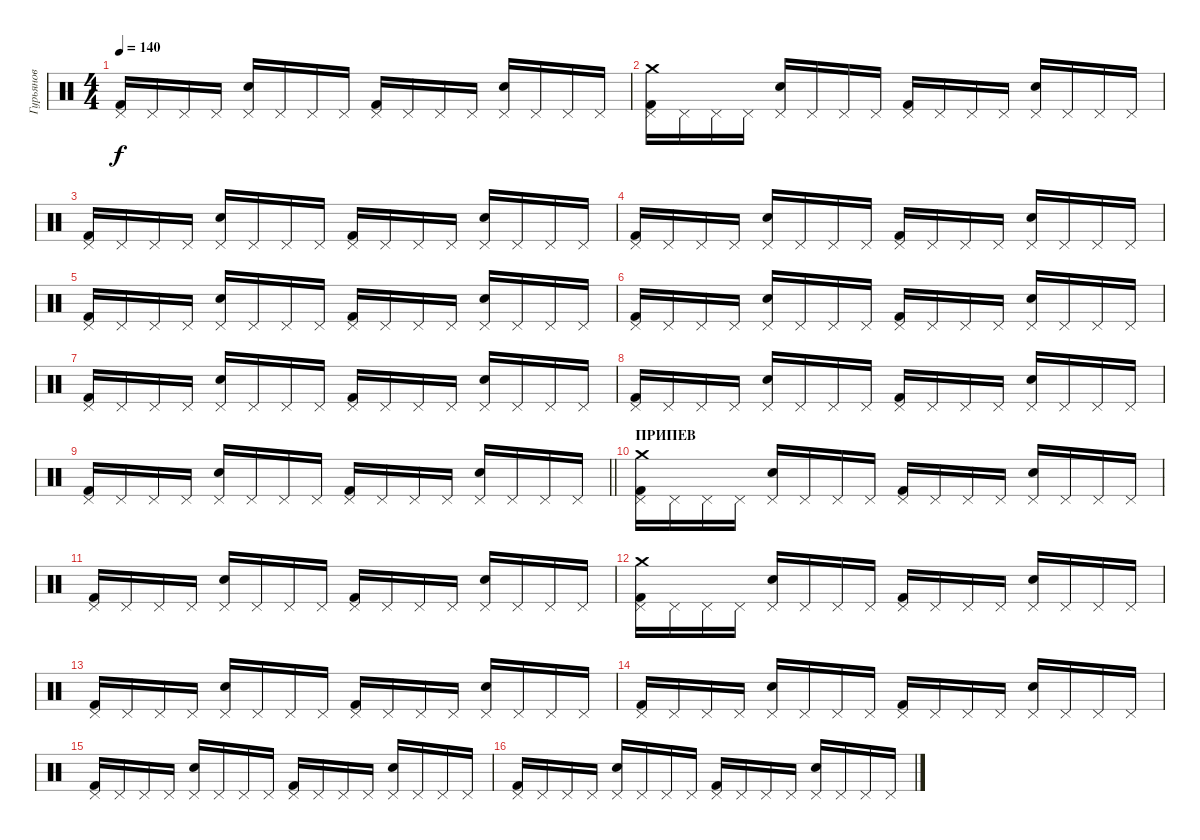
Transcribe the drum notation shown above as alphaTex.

\track ("Гурьянов" "Гурьянов") {instrument percussion}
\staff {score}
\articulation defaults
\ts (4 4)
\tempo 140
\clef neutral
\ks c
("Pedal Hi-Hat (hit)" "Kick (hit) 2").16{dy f} "Pedal Hi-Hat (hit)".16 "Pedal Hi-Hat (hit)".16 "Pedal Hi-Hat (hit)".16 ("Pedal Hi-Hat (hit)" "Electric Snare (hit)").16 "Pedal Hi-Hat (hit)".16 "Pedal Hi-Hat (hit)".16 "Pedal Hi-Hat (hit)".16 ("Pedal Hi-Hat (hit)" "Kick (hit) 2").16 "Pedal Hi-Hat (hit)".16 "Pedal Hi-Hat (hit)".16 "Pedal Hi-Hat (hit)".16 ("Pedal Hi-Hat (hit)" "Electric Snare (hit)").16 "Pedal Hi-Hat (hit)".16 "Pedal Hi-Hat (hit)".16 "Pedal Hi-Hat (hit)".16 |
("Pedal Hi-Hat (hit)" "Crash medium (hit)" "Kick (hit) 2").16 "Pedal Hi-Hat (hit)".16 "Pedal Hi-Hat (hit)".16 "Pedal Hi-Hat (hit)".16 ("Pedal Hi-Hat (hit)" "Electric Snare (hit)").16 "Pedal Hi-Hat (hit)".16 "Pedal Hi-Hat (hit)".16 "Pedal Hi-Hat (hit)".16 ("Pedal Hi-Hat (hit)" "Kick (hit) 2").16 "Pedal Hi-Hat (hit)".16 "Pedal Hi-Hat (hit)".16 "Pedal Hi-Hat (hit)".16 ("Pedal Hi-Hat (hit)" "Electric Snare (hit)").16 "Pedal Hi-Hat (hit)".16 "Pedal Hi-Hat (hit)".16 "Pedal Hi-Hat (hit)".16 |
("Pedal Hi-Hat (hit)" "Kick (hit) 2").16 "Pedal Hi-Hat (hit)".16 "Pedal Hi-Hat (hit)".16 "Pedal Hi-Hat (hit)".16 ("Pedal Hi-Hat (hit)" "Electric Snare (hit)").16 "Pedal Hi-Hat (hit)".16 "Pedal Hi-Hat (hit)".16 "Pedal Hi-Hat (hit)".16 ("Pedal Hi-Hat (hit)" "Kick (hit) 2").16 "Pedal Hi-Hat (hit)".16 "Pedal Hi-Hat (hit)".16 "Pedal Hi-Hat (hit)".16 ("Pedal Hi-Hat (hit)" "Electric Snare (hit)").16 "Pedal Hi-Hat (hit)".16 "Pedal Hi-Hat (hit)".16 "Pedal Hi-Hat (hit)".16 |
("Pedal Hi-Hat (hit)" "Kick (hit) 2").16 "Pedal Hi-Hat (hit)".16 "Pedal Hi-Hat (hit)".16 "Pedal Hi-Hat (hit)".16 ("Pedal Hi-Hat (hit)" "Electric Snare (hit)").16 "Pedal Hi-Hat (hit)".16 "Pedal Hi-Hat (hit)".16 "Pedal Hi-Hat (hit)".16 ("Pedal Hi-Hat (hit)" "Kick (hit) 2").16 "Pedal Hi-Hat (hit)".16 "Pedal Hi-Hat (hit)".16 "Pedal Hi-Hat (hit)".16 ("Pedal Hi-Hat (hit)" "Electric Snare (hit)").16 "Pedal Hi-Hat (hit)".16 "Pedal Hi-Hat (hit)".16 "Pedal Hi-Hat (hit)".16 |
("Pedal Hi-Hat (hit)" "Kick (hit) 2").16 "Pedal Hi-Hat (hit)".16 "Pedal Hi-Hat (hit)".16 "Pedal Hi-Hat (hit)".16 ("Pedal Hi-Hat (hit)" "Electric Snare (hit)").16 "Pedal Hi-Hat (hit)".16 "Pedal Hi-Hat (hit)".16 "Pedal Hi-Hat (hit)".16 ("Pedal Hi-Hat (hit)" "Kick (hit) 2").16 "Pedal Hi-Hat (hit)".16 "Pedal Hi-Hat (hit)".16 "Pedal Hi-Hat (hit)".16 ("Pedal Hi-Hat (hit)" "Electric Snare (hit)").16 "Pedal Hi-Hat (hit)".16 "Pedal Hi-Hat (hit)".16 "Pedal Hi-Hat (hit)".16 |
("Pedal Hi-Hat (hit)" "Kick (hit) 2").16 "Pedal Hi-Hat (hit)".16 "Pedal Hi-Hat (hit)".16 "Pedal Hi-Hat (hit)".16 ("Pedal Hi-Hat (hit)" "Electric Snare (hit)").16 "Pedal Hi-Hat (hit)".16 "Pedal Hi-Hat (hit)".16 "Pedal Hi-Hat (hit)".16 ("Pedal Hi-Hat (hit)" "Kick (hit) 2").16 "Pedal Hi-Hat (hit)".16 "Pedal Hi-Hat (hit)".16 "Pedal Hi-Hat (hit)".16 ("Pedal Hi-Hat (hit)" "Electric Snare (hit)").16 "Pedal Hi-Hat (hit)".16 "Pedal Hi-Hat (hit)".16 "Pedal Hi-Hat (hit)".16 |
("Pedal Hi-Hat (hit)" "Kick (hit) 2").16 "Pedal Hi-Hat (hit)".16 "Pedal Hi-Hat (hit)".16 "Pedal Hi-Hat (hit)".16 ("Pedal Hi-Hat (hit)" "Electric Snare (hit)").16 "Pedal Hi-Hat (hit)".16 "Pedal Hi-Hat (hit)".16 "Pedal Hi-Hat (hit)".16 ("Pedal Hi-Hat (hit)" "Kick (hit) 2").16 "Pedal Hi-Hat (hit)".16 "Pedal Hi-Hat (hit)".16 "Pedal Hi-Hat (hit)".16 ("Pedal Hi-Hat (hit)" "Electric Snare (hit)").16 "Pedal Hi-Hat (hit)".16 "Pedal Hi-Hat (hit)".16 "Pedal Hi-Hat (hit)".16 |
("Pedal Hi-Hat (hit)" "Kick (hit) 2").16 "Pedal Hi-Hat (hit)".16 "Pedal Hi-Hat (hit)".16 "Pedal Hi-Hat (hit)".16 ("Pedal Hi-Hat (hit)" "Electric Snare (hit)").16 "Pedal Hi-Hat (hit)".16 "Pedal Hi-Hat (hit)".16 "Pedal Hi-Hat (hit)".16 ("Pedal Hi-Hat (hit)" "Kick (hit) 2").16 "Pedal Hi-Hat (hit)".16 "Pedal Hi-Hat (hit)".16 "Pedal Hi-Hat (hit)".16 ("Pedal Hi-Hat (hit)" "Electric Snare (hit)").16 "Pedal Hi-Hat (hit)".16 "Pedal Hi-Hat (hit)".16 "Pedal Hi-Hat (hit)".16 |
\barLineRight lightlight
("Pedal Hi-Hat (hit)" "Kick (hit) 2").16 "Pedal Hi-Hat (hit)".16 "Pedal Hi-Hat (hit)".16 "Pedal Hi-Hat (hit)".16 ("Pedal Hi-Hat (hit)" "Electric Snare (hit)").16 "Pedal Hi-Hat (hit)".16 "Pedal Hi-Hat (hit)".16 "Pedal Hi-Hat (hit)".16 ("Pedal Hi-Hat (hit)" "Kick (hit) 2").16 "Pedal Hi-Hat (hit)".16 "Pedal Hi-Hat (hit)".16 "Pedal Hi-Hat (hit)".16 ("Pedal Hi-Hat (hit)" "Electric Snare (hit)").16 "Pedal Hi-Hat (hit)".16 "Pedal Hi-Hat (hit)".16 "Pedal Hi-Hat (hit)".16 |
\section ("" "ПРИПЕВ")
("Pedal Hi-Hat (hit)" "Crash medium (hit)" "Kick (hit) 2").16 "Pedal Hi-Hat (hit)".16 "Pedal Hi-Hat (hit)".16 "Pedal Hi-Hat (hit)".16 ("Pedal Hi-Hat (hit)" "Electric Snare (hit)").16 "Pedal Hi-Hat (hit)".16 "Pedal Hi-Hat (hit)".16 "Pedal Hi-Hat (hit)".16 ("Pedal Hi-Hat (hit)" "Kick (hit) 2").16 "Pedal Hi-Hat (hit)".16 "Pedal Hi-Hat (hit)".16 "Pedal Hi-Hat (hit)".16 ("Pedal Hi-Hat (hit)" "Electric Snare (hit)").16 "Pedal Hi-Hat (hit)".16 "Pedal Hi-Hat (hit)".16 "Pedal Hi-Hat (hit)".16 |
("Pedal Hi-Hat (hit)" "Kick (hit) 2").16 "Pedal Hi-Hat (hit)".16 "Pedal Hi-Hat (hit)".16 "Pedal Hi-Hat (hit)".16 ("Pedal Hi-Hat (hit)" "Electric Snare (hit)").16 "Pedal Hi-Hat (hit)".16 "Pedal Hi-Hat (hit)".16 "Pedal Hi-Hat (hit)".16 ("Pedal Hi-Hat (hit)" "Kick (hit) 2").16 "Pedal Hi-Hat (hit)".16 "Pedal Hi-Hat (hit)".16 "Pedal Hi-Hat (hit)".16 ("Pedal Hi-Hat (hit)" "Electric Snare (hit)").16 "Pedal Hi-Hat (hit)".16 "Pedal Hi-Hat (hit)".16 "Pedal Hi-Hat (hit)".16 |
("Pedal Hi-Hat (hit)" "Crash medium (hit)" "Kick (hit) 2").16 "Pedal Hi-Hat (hit)".16 "Pedal Hi-Hat (hit)".16 "Pedal Hi-Hat (hit)".16 ("Pedal Hi-Hat (hit)" "Electric Snare (hit)").16 "Pedal Hi-Hat (hit)".16 "Pedal Hi-Hat (hit)".16 "Pedal Hi-Hat (hit)".16 ("Pedal Hi-Hat (hit)" "Kick (hit) 2").16 "Pedal Hi-Hat (hit)".16 "Pedal Hi-Hat (hit)".16 "Pedal Hi-Hat (hit)".16 ("Pedal Hi-Hat (hit)" "Electric Snare (hit)").16 "Pedal Hi-Hat (hit)".16 "Pedal Hi-Hat (hit)".16 "Pedal Hi-Hat (hit)".16 |
("Pedal Hi-Hat (hit)" "Kick (hit) 2").16 "Pedal Hi-Hat (hit)".16 "Pedal Hi-Hat (hit)".16 "Pedal Hi-Hat (hit)".16 ("Pedal Hi-Hat (hit)" "Electric Snare (hit)").16 "Pedal Hi-Hat (hit)".16 "Pedal Hi-Hat (hit)".16 "Pedal Hi-Hat (hit)".16 ("Pedal Hi-Hat (hit)" "Kick (hit) 2").16 "Pedal Hi-Hat (hit)".16 "Pedal Hi-Hat (hit)".16 "Pedal Hi-Hat (hit)".16 ("Pedal Hi-Hat (hit)" "Electric Snare (hit)").16 "Pedal Hi-Hat (hit)".16 "Pedal Hi-Hat (hit)".16 "Pedal Hi-Hat (hit)".16 |
("Pedal Hi-Hat (hit)" "Kick (hit) 2").16 "Pedal Hi-Hat (hit)".16 "Pedal Hi-Hat (hit)".16 "Pedal Hi-Hat (hit)".16 ("Pedal Hi-Hat (hit)" "Electric Snare (hit)").16 "Pedal Hi-Hat (hit)".16 "Pedal Hi-Hat (hit)".16 "Pedal Hi-Hat (hit)".16 ("Pedal Hi-Hat (hit)" "Kick (hit) 2").16 "Pedal Hi-Hat (hit)".16 "Pedal Hi-Hat (hit)".16 "Pedal Hi-Hat (hit)".16 ("Pedal Hi-Hat (hit)" "Electric Snare (hit)").16 "Pedal Hi-Hat (hit)".16 "Pedal Hi-Hat (hit)".16 "Pedal Hi-Hat (hit)".16 |
("Pedal Hi-Hat (hit)" "Kick (hit) 2").16 "Pedal Hi-Hat (hit)".16 "Pedal Hi-Hat (hit)".16 "Pedal Hi-Hat (hit)".16 ("Pedal Hi-Hat (hit)" "Electric Snare (hit)").16 "Pedal Hi-Hat (hit)".16 "Pedal Hi-Hat (hit)".16 "Pedal Hi-Hat (hit)".16 ("Pedal Hi-Hat (hit)" "Kick (hit) 2").16 "Pedal Hi-Hat (hit)".16 "Pedal Hi-Hat (hit)".16 "Pedal Hi-Hat (hit)".16 ("Pedal Hi-Hat (hit)" "Electric Snare (hit)").16 "Pedal Hi-Hat (hit)".16 "Pedal Hi-Hat (hit)".16 "Pedal Hi-Hat (hit)".16 |
("Pedal Hi-Hat (hit)" "Kick (hit) 2").16 "Pedal Hi-Hat (hit)".16 "Pedal Hi-Hat (hit)".16 "Pedal Hi-Hat (hit)".16 ("Pedal Hi-Hat (hit)" "Electric Snare (hit)").16 "Pedal Hi-Hat (hit)".16 "Pedal Hi-Hat (hit)".16 "Pedal Hi-Hat (hit)".16 ("Pedal Hi-Hat (hit)" "Kick (hit) 2").16 "Pedal Hi-Hat (hit)".16 "Pedal Hi-Hat (hit)".16 "Pedal Hi-Hat (hit)".16 ("Pedal Hi-Hat (hit)" "Electric Snare (hit)").16 "Pedal Hi-Hat (hit)".16 "Pedal Hi-Hat (hit)".16 "Pedal Hi-Hat (hit)".16
